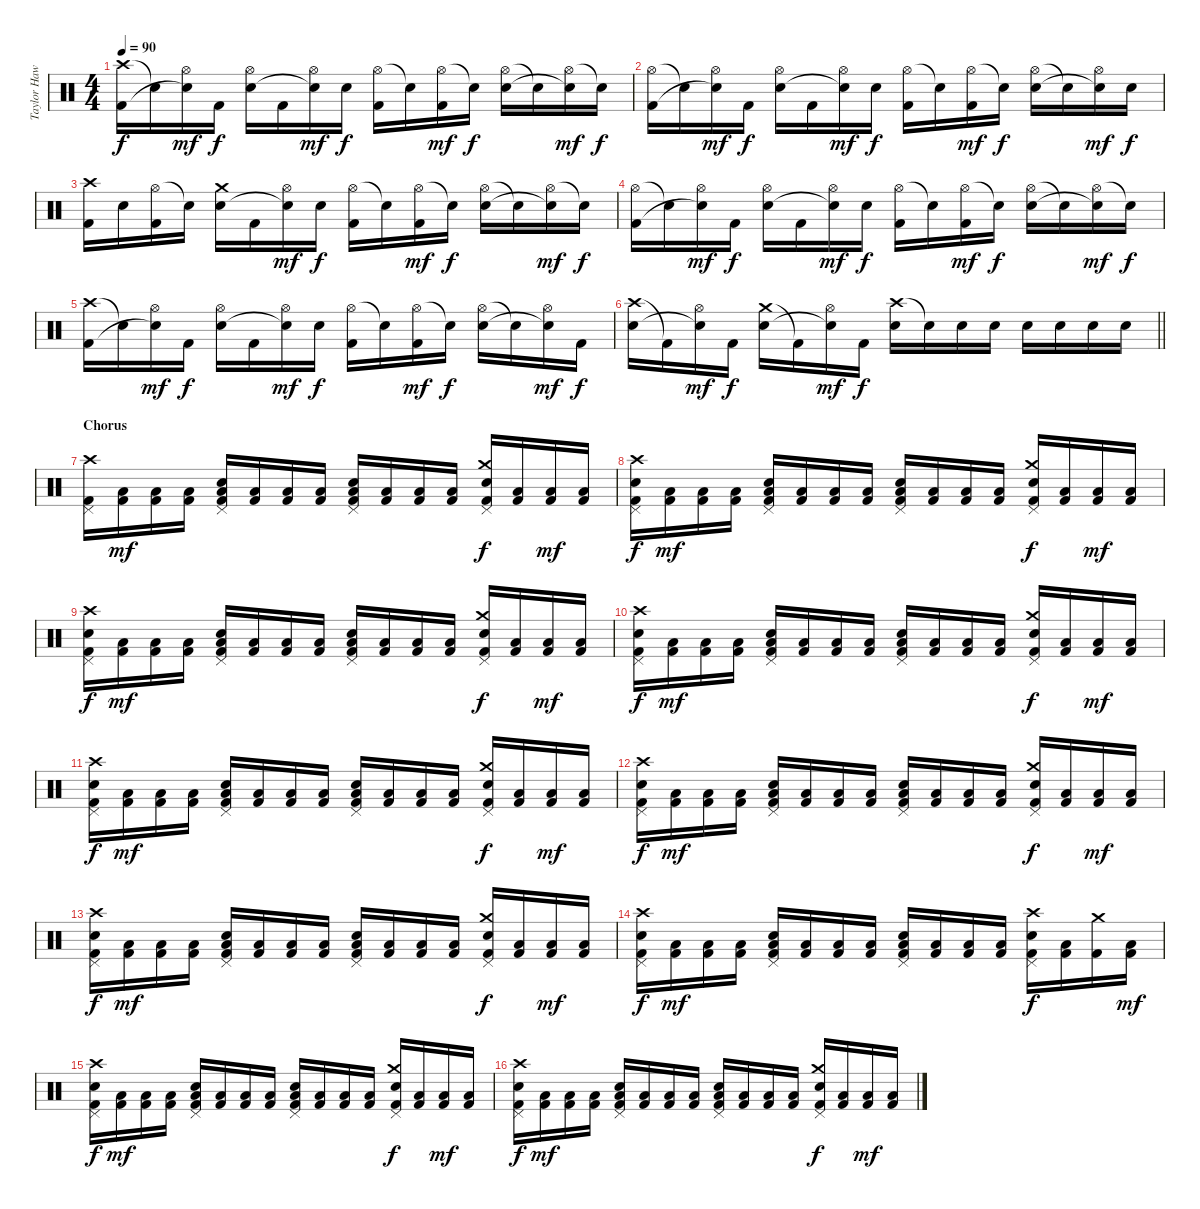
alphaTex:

\track ("Taylor Hawkins " "Taylor Haw") {instrument percussion}
\staff {score}
\articulation defaults
\ts (4 4)
\tempo 90
\clef neutral
\ks c
("Crash high (hit)" "Kick (hit) 2").16{dy f} "Snare (hit)"{t}.16 ("Hi-Hat (open)" "Snare (hit)"{t}).16{dy mf} "Kick (hit) 2".16{dy f} ("Hi-Hat (open)" "Snare (hit) 2").16 "Kick (hit) 2".16 ("Hi-Hat (open)" "Snare (hit)"{t}).16{dy mf} "Snare (hit) 2".16{dy f} ("Hi-Hat (open)" "Kick (hit) 2").16 "Snare (hit)"{t}.16 ("Hi-Hat (open)" "Kick (hit) 2").16{dy mf} "Snare (hit)"{t}.16{dy f} ("Hi-Hat (open)" "Snare (hit) 2").16 "Snare (hit)"{t}.16 ("Hi-Hat (open)" "Snare (hit)"{t}).16{dy mf} "Snare (hit)"{t}.16{dy f} |
("Hi-Hat (open)" "Kick (hit) 2").16 "Snare (hit)"{t}.16 ("Hi-Hat (open)" "Snare (hit)"{t}).16{dy mf} "Kick (hit) 2".16{dy f} ("Hi-Hat (open)" "Snare (hit) 2").16 "Kick (hit) 2".16 ("Hi-Hat (open)" "Snare (hit)"{t}).16{dy mf} "Snare (hit) 2".16{dy f} ("Hi-Hat (open)" "Kick (hit) 2").16 "Snare (hit)"{t}.16 ("Hi-Hat (open)" "Kick (hit) 2").16{dy mf} "Snare (hit)"{t}.16{dy f} ("Hi-Hat (open)" "Snare (hit) 2").16 "Snare (hit)"{t}.16 ("Hi-Hat (open)" "Snare (hit)"{t}).16{dy mf} "Snare (hit) 2".16{dy f} |
("Crash high (hit)" "Kick (hit) 2").16 "Snare (hit) 2".16 ("Hi-Hat (open)" "Kick (hit) 2").16 "Snare (hit)"{t}.16 ("Crash medium (hit)" "Snare (hit) 2").16 "Kick (hit) 2".16 ("Hi-Hat (open)" "Snare (hit)"{t}).16{dy mf} "Snare (hit) 2".16{dy f} ("Hi-Hat (open)" "Kick (hit) 2").16 "Snare (hit)"{t}.16 ("Hi-Hat (open)" "Kick (hit) 2").16{dy mf} "Snare (hit)"{t}.16{dy f} ("Hi-Hat (open)" "Snare (hit) 2").16 "Snare (hit)"{t}.16 ("Hi-Hat (open)" "Snare (hit)"{t}).16{dy mf} "Snare (hit) 2"{t}.16{dy f} |
("Hi-Hat (open)" "Kick (hit) 2").16 "Snare (hit)"{t}.16 ("Hi-Hat (open)" "Snare (hit)"{t}).16{dy mf} "Kick (hit) 2".16{dy f} ("Hi-Hat (open)" "Snare (hit) 2").16 "Kick (hit) 2".16 ("Hi-Hat (open)" "Snare (hit)"{t}).16{dy mf} "Snare (hit) 2".16{dy f} ("Hi-Hat (open)" "Kick (hit) 2").16 "Snare (hit)"{t}.16 ("Hi-Hat (open)" "Kick (hit) 2").16{dy mf} "Snare (hit)"{t}.16{dy f} ("Hi-Hat (open)" "Snare (hit) 2").16 "Snare (hit)"{t}.16 ("Hi-Hat (open)" "Snare (hit)"{t}).16{dy mf} "Snare (hit)"{t}.16{dy f} |
("Crash high (hit)" "Kick (hit) 2").16 "Snare (hit)"{t}.16 ("Hi-Hat (open)" "Snare (hit)"{t}).16{dy mf} "Kick (hit) 2".16{dy f} ("Hi-Hat (open)" "Snare (hit) 2").16 "Kick (hit) 2".16 ("Hi-Hat (open)" "Snare (hit)"{t}).16{dy mf} "Snare (hit) 2".16{dy f} ("Hi-Hat (open)" "Kick (hit) 2").16 "Snare (hit)"{t}.16 ("Hi-Hat (open)" "Kick (hit) 2").16{dy mf} "Snare (hit)"{t}.16{dy f} ("Hi-Hat (open)" "Snare (hit) 2").16 "Snare (hit)"{t}.16 ("Hi-Hat (open)" "Snare (hit)"{t}).16{dy mf} "Kick (hit) 2".16{dy f} |
\barLineRight lightlight
("Crash high (hit)" "Snare (hit) 2").16 "Kick (hit) 2"{t}.16 ("Hi-Hat (open)" "Snare (hit)"{t}).16{dy mf} "Kick (hit) 2".16{dy f} ("Crash medium (hit)" "Snare (hit) 2").16 "Kick (hit) 2"{t}.16 ("Hi-Hat (open)" "Snare (hit)"{t}).16{dy mf} "Kick (hit) 2".16{dy f} ("Crash high (hit)" "Snare (hit) 2").16 "Snare (hit) 2"{t}.16 "Snare (hit) 2".16 "Snare (hit) 2".16 "Snare (hit) 2".16 "Snare (hit) 2".16 "Snare (hit) 2".16 "Snare (hit) 2".16 |
\section ("" "Chorus")
("Pedal Hi-Hat (hit)" "Crash high (hit)" "Kick (hit) 2").16 ("Low Tom (hit)" "Kick (hit) 2").16{dy mf} ("Low Floor Tom (hit)" "Kick (hit) 2").16 ("Low Floor Tom (hit)" "Kick (hit) 2").16 ("Pedal Hi-Hat (hit)" "Low Floor Tom (hit)" "Snare (hit) 2" "Kick (hit) 2").16 ("Low Tom (hit)" "Kick (hit) 2").16 ("Low Floor Tom (hit)" "Kick (hit) 2").16 ("Low Floor Tom (hit)" "Kick (hit) 2").16 ("Pedal Hi-Hat (hit)" "Low Floor Tom (hit)" "Snare (hit) 2" "Kick (hit) 2").16 ("Low Tom (hit)" "Kick (hit) 2").16 ("Low Floor Tom (hit)" "Kick (hit) 2").16 ("Low Floor Tom (hit)" "Kick (hit) 2").16 ("Pedal Hi-Hat (hit)" "Crash medium (hit)" "Snare (hit) 2" "Kick (hit) 2").16{dy f} ("Low Tom (hit)" "Kick (hit) 2").16 ("Low Floor Tom (hit)" "Kick (hit) 2").16{dy mf} ("Low Floor Tom (hit)" "Kick (hit) 2").16 |
("Pedal Hi-Hat (hit)" "Crash high (hit)" "Snare (hit) 2" "Kick (hit) 2").16{dy f} ("Low Tom (hit)" "Kick (hit) 2").16{dy mf} ("Low Floor Tom (hit)" "Kick (hit) 2").16 ("Low Floor Tom (hit)" "Kick (hit) 2").16 ("Pedal Hi-Hat (hit)" "Low Floor Tom (hit)" "Snare (hit) 2" "Kick (hit) 2").16 ("Low Tom (hit)" "Kick (hit) 2").16 ("Low Floor Tom (hit)" "Kick (hit) 2").16 ("Low Floor Tom (hit)" "Kick (hit) 2").16 ("Pedal Hi-Hat (hit)" "Low Floor Tom (hit)" "Snare (hit) 2" "Kick (hit) 2").16 ("Low Tom (hit)" "Kick (hit) 2").16 ("Low Floor Tom (hit)" "Kick (hit) 2").16 ("Low Floor Tom (hit)" "Kick (hit) 2").16 ("Pedal Hi-Hat (hit)" "Crash medium (hit)" "Snare (hit) 2" "Kick (hit) 2").16{dy f} ("Low Tom (hit)" "Kick (hit) 2").16 ("Low Floor Tom (hit)" "Kick (hit) 2").16{dy mf} ("Low Floor Tom (hit)" "Kick (hit) 2").16 |
("Pedal Hi-Hat (hit)" "Crash high (hit)" "Snare (hit) 2" "Kick (hit) 2").16{dy f} ("Low Tom (hit)" "Kick (hit) 2").16{dy mf} ("Low Floor Tom (hit)" "Kick (hit) 2").16 ("Low Floor Tom (hit)" "Kick (hit) 2").16 ("Pedal Hi-Hat (hit)" "Low Floor Tom (hit)" "Snare (hit) 2" "Kick (hit) 2").16 ("Low Tom (hit)" "Kick (hit) 2").16 ("Low Floor Tom (hit)" "Kick (hit) 2").16 ("Low Floor Tom (hit)" "Kick (hit) 2").16 ("Pedal Hi-Hat (hit)" "Low Floor Tom (hit)" "Snare (hit) 2" "Kick (hit) 2").16 ("Low Tom (hit)" "Kick (hit) 2").16 ("Low Floor Tom (hit)" "Kick (hit) 2").16 ("Low Floor Tom (hit)" "Kick (hit) 2").16 ("Pedal Hi-Hat (hit)" "Crash medium (hit)" "Snare (hit) 2" "Kick (hit) 2").16{dy f} ("Low Tom (hit)" "Kick (hit) 2").16 ("Low Floor Tom (hit)" "Kick (hit) 2").16{dy mf} ("Low Floor Tom (hit)" "Kick (hit) 2").16 |
("Pedal Hi-Hat (hit)" "Crash high (hit)" "Snare (hit) 2" "Kick (hit) 2").16{dy f} ("Low Tom (hit)" "Kick (hit) 2").16{dy mf} ("Low Floor Tom (hit)" "Kick (hit) 2").16 ("Low Floor Tom (hit)" "Kick (hit) 2").16 ("Pedal Hi-Hat (hit)" "Low Floor Tom (hit)" "Snare (hit) 2" "Kick (hit) 2").16 ("Low Tom (hit)" "Kick (hit) 2").16 ("Low Floor Tom (hit)" "Kick (hit) 2").16 ("Low Floor Tom (hit)" "Kick (hit) 2").16 ("Pedal Hi-Hat (hit)" "Low Floor Tom (hit)" "Snare (hit) 2" "Kick (hit) 2").16 ("Low Tom (hit)" "Kick (hit) 2").16 ("Low Floor Tom (hit)" "Kick (hit) 2").16 ("Low Floor Tom (hit)" "Kick (hit) 2").16 ("Pedal Hi-Hat (hit)" "Crash medium (hit)" "Snare (hit) 2" "Kick (hit) 2").16{dy f} ("Low Tom (hit)" "Kick (hit) 2").16 ("Low Floor Tom (hit)" "Kick (hit) 2").16{dy mf} ("Low Floor Tom (hit)" "Kick (hit) 2").16 |
("Pedal Hi-Hat (hit)" "Crash high (hit)" "Snare (hit) 2" "Kick (hit) 2").16{dy f} ("Low Tom (hit)" "Kick (hit) 2").16{dy mf} ("Low Floor Tom (hit)" "Kick (hit) 2").16 ("Low Floor Tom (hit)" "Kick (hit) 2").16 ("Pedal Hi-Hat (hit)" "Low Floor Tom (hit)" "Snare (hit) 2" "Kick (hit) 2").16 ("Low Tom (hit)" "Kick (hit) 2").16 ("Low Floor Tom (hit)" "Kick (hit) 2").16 ("Low Floor Tom (hit)" "Kick (hit) 2").16 ("Pedal Hi-Hat (hit)" "Low Floor Tom (hit)" "Snare (hit) 2" "Kick (hit) 2").16 ("Low Tom (hit)" "Kick (hit) 2").16 ("Low Floor Tom (hit)" "Kick (hit) 2").16 ("Low Floor Tom (hit)" "Kick (hit) 2").16 ("Pedal Hi-Hat (hit)" "Crash medium (hit)" "Snare (hit) 2" "Kick (hit) 2").16{dy f} ("Low Tom (hit)" "Kick (hit) 2").16 ("Low Floor Tom (hit)" "Kick (hit) 2").16{dy mf} ("Low Floor Tom (hit)" "Kick (hit) 2").16 |
("Pedal Hi-Hat (hit)" "Crash high (hit)" "Snare (hit) 2" "Kick (hit) 2").16{dy f} ("Low Tom (hit)" "Kick (hit) 2").16{dy mf} ("Low Floor Tom (hit)" "Kick (hit) 2").16 ("Low Floor Tom (hit)" "Kick (hit) 2").16 ("Pedal Hi-Hat (hit)" "Low Floor Tom (hit)" "Snare (hit) 2" "Kick (hit) 2").16 ("Low Tom (hit)" "Kick (hit) 2").16 ("Low Floor Tom (hit)" "Kick (hit) 2").16 ("Low Floor Tom (hit)" "Kick (hit) 2").16 ("Pedal Hi-Hat (hit)" "Low Floor Tom (hit)" "Snare (hit) 2" "Kick (hit) 2").16 ("Low Tom (hit)" "Kick (hit) 2").16 ("Low Floor Tom (hit)" "Kick (hit) 2").16 ("Low Floor Tom (hit)" "Kick (hit) 2").16 ("Pedal Hi-Hat (hit)" "Crash medium (hit)" "Snare (hit) 2" "Kick (hit) 2").16{dy f} ("Low Tom (hit)" "Kick (hit) 2").16 ("Low Floor Tom (hit)" "Kick (hit) 2").16{dy mf} ("Low Floor Tom (hit)" "Kick (hit) 2").16 |
("Pedal Hi-Hat (hit)" "Crash high (hit)" "Snare (hit) 2" "Kick (hit) 2").16{dy f} ("Low Tom (hit)" "Kick (hit) 2").16{dy mf} ("Low Floor Tom (hit)" "Kick (hit) 2").16 ("Low Floor Tom (hit)" "Kick (hit) 2").16 ("Pedal Hi-Hat (hit)" "Low Floor Tom (hit)" "Snare (hit) 2" "Kick (hit) 2").16 ("Low Tom (hit)" "Kick (hit) 2").16 ("Low Floor Tom (hit)" "Kick (hit) 2").16 ("Low Floor Tom (hit)" "Kick (hit) 2").16 ("Pedal Hi-Hat (hit)" "Low Floor Tom (hit)" "Snare (hit) 2" "Kick (hit) 2").16 ("Low Tom (hit)" "Kick (hit) 2").16 ("Low Floor Tom (hit)" "Kick (hit) 2").16 ("Low Floor Tom (hit)" "Kick (hit) 2").16 ("Pedal Hi-Hat (hit)" "Crash medium (hit)" "Snare (hit) 2" "Kick (hit) 2").16{dy f} ("Low Tom (hit)" "Kick (hit) 2").16 ("Low Floor Tom (hit)" "Kick (hit) 2").16{dy mf} ("Low Floor Tom (hit)" "Kick (hit) 2").16 |
("Pedal Hi-Hat (hit)" "Crash high (hit)" "Snare (hit) 2" "Kick (hit) 2").16{dy f} ("Low Tom (hit)" "Kick (hit) 2").16{dy mf} ("Low Floor Tom (hit)" "Kick (hit) 2").16 ("Low Floor Tom (hit)" "Kick (hit) 2").16 ("Pedal Hi-Hat (hit)" "Low Floor Tom (hit)" "Snare (hit) 2" "Kick (hit) 2").16 ("Low Tom (hit)" "Kick (hit) 2").16 ("Low Floor Tom (hit)" "Kick (hit) 2").16 ("Low Floor Tom (hit)" "Kick (hit) 2").16 ("Pedal Hi-Hat (hit)" "Low Floor Tom (hit)" "Snare (hit) 2" "Kick (hit) 2").16 ("Low Tom (hit)" "Kick (hit) 2").16 ("Low Floor Tom (hit)" "Kick (hit) 2").16 ("Low Floor Tom (hit)" "Kick (hit) 2").16 ("Pedal Hi-Hat (hit)" "Crash high (hit)" "Snare (hit) 2" "Kick (hit) 2").16{dy f} ("Low Tom (hit)" "Kick (hit) 2").16 ("Crash medium (hit)" "Kick (hit) 2").16 ("Low Floor Tom (hit)" "Kick (hit) 2").16{dy mf} |
("Pedal Hi-Hat (hit)" "Crash high (hit)" "Snare (hit) 2" "Kick (hit) 2").16{dy f} ("Low Tom (hit)" "Kick (hit) 2").16{dy mf} ("Low Floor Tom (hit)" "Kick (hit) 2").16 ("Low Floor Tom (hit)" "Kick (hit) 2").16 ("Pedal Hi-Hat (hit)" "Low Floor Tom (hit)" "Snare (hit) 2" "Kick (hit) 2").16 ("Low Tom (hit)" "Kick (hit) 2").16 ("Low Floor Tom (hit)" "Kick (hit) 2").16 ("Low Floor Tom (hit)" "Kick (hit) 2").16 ("Pedal Hi-Hat (hit)" "Low Floor Tom (hit)" "Snare (hit) 2" "Kick (hit) 2").16 ("Low Tom (hit)" "Kick (hit) 2").16 ("Low Floor Tom (hit)" "Kick (hit) 2").16 ("Low Floor Tom (hit)" "Kick (hit) 2").16 ("Pedal Hi-Hat (hit)" "Crash medium (hit)" "Snare (hit) 2" "Kick (hit) 2").16{dy f} ("Low Tom (hit)" "Kick (hit) 2").16 ("Low Floor Tom (hit)" "Kick (hit) 2").16{dy mf} ("Low Floor Tom (hit)" "Kick (hit) 2").16 |
("Pedal Hi-Hat (hit)" "Crash high (hit)" "Snare (hit) 2" "Kick (hit) 2").16{dy f} ("Low Tom (hit)" "Kick (hit) 2").16{dy mf} ("Low Floor Tom (hit)" "Kick (hit) 2").16 ("Low Floor Tom (hit)" "Kick (hit) 2").16 ("Pedal Hi-Hat (hit)" "Low Floor Tom (hit)" "Snare (hit) 2" "Kick (hit) 2").16 ("Low Tom (hit)" "Kick (hit) 2").16 ("Low Floor Tom (hit)" "Kick (hit) 2").16 ("Low Floor Tom (hit)" "Kick (hit) 2").16 ("Pedal Hi-Hat (hit)" "Low Floor Tom (hit)" "Snare (hit) 2" "Kick (hit) 2").16 ("Low Tom (hit)" "Kick (hit) 2").16 ("Low Floor Tom (hit)" "Kick (hit) 2").16 ("Low Floor Tom (hit)" "Kick (hit) 2").16 ("Pedal Hi-Hat (hit)" "Crash medium (hit)" "Snare (hit) 2" "Kick (hit) 2").16{dy f} ("Low Tom (hit)" "Kick (hit) 2").16 ("Low Floor Tom (hit)" "Kick (hit) 2").16{dy mf} ("Low Floor Tom (hit)" "Kick (hit) 2").16
